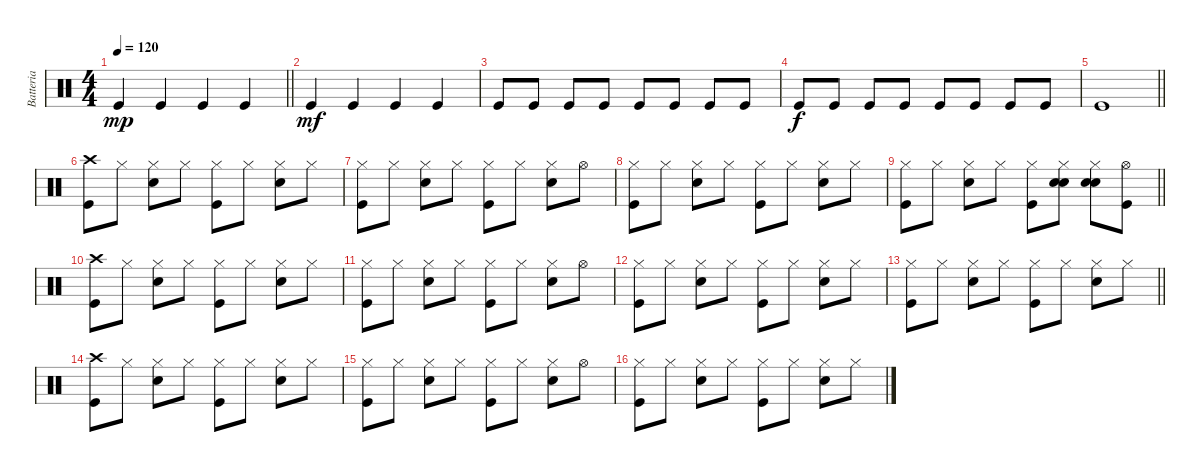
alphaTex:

\track ("Batteria" "Batteria") {instrument percussion}
\staff {score}
\articulation defaults
\ts (4 4)
\tempo 120
\clef neutral
\barLineRight lightlight
\ks c "Kick (hit)".4{dy mp} "Kick (hit)".4 "Kick (hit)".4 "Kick (hit)".4
|
"Kick (hit)".4{dy mf} "Kick (hit)".4 "Kick (hit)".4 "Kick (hit)".4 |
"Kick (hit)".8 "Kick (hit)".8 "Kick (hit)".8 "Kick (hit)".8 "Kick (hit)".8 "Kick (hit)".8 "Kick (hit)".8 "Kick (hit)".8 |
"Kick (hit)".8{dy f} "Kick (hit)".8 "Kick (hit)".8 "Kick (hit)".8 "Kick (hit)".8 "Kick (hit)".8 "Kick (hit)".8 "Kick (hit)".8 |
\barLineRight lightlight "Kick (hit)".1
|
("Kick (hit)" "Crash high (hit)").8 "Hi-Hat (closed)".8 ("Snare (hit) 2" "Hi-Hat (closed)").8 "Hi-Hat (closed)".8 ("Kick (hit)" "Hi-Hat (closed)").8 "Hi-Hat (closed)".8 ("Snare (hit) 2" "Hi-Hat (closed)").8 "Hi-Hat (closed)".8 |
("Kick (hit)" "Hi-Hat (closed)").8 "Hi-Hat (closed)".8 ("Snare (hit) 2" "Hi-Hat (closed)").8 "Hi-Hat (closed)".8 ("Kick (hit)" "Hi-Hat (closed)").8 "Hi-Hat (closed)".8 ("Snare (hit) 2" "Hi-Hat (closed)").8 "Hi-Hat (open)".8 |
("Kick (hit)" "Hi-Hat (closed)").8 "Hi-Hat (closed)".8 ("Snare (hit) 2" "Hi-Hat (closed)").8 "Hi-Hat (closed)".8 ("Kick (hit)" "Hi-Hat (closed)").8 "Hi-Hat (closed)".8 ("Snare (hit) 2" "Hi-Hat (closed)").8 "Hi-Hat (closed)".8 |
\barLineRight lightlight
("Kick (hit)" "Hi-Hat (closed)").8 "Hi-Hat (closed)".8 ("Snare (hit) 2" "Hi-Hat (closed)").8 "Hi-Hat (closed)".8 ("Kick (hit)" "Hi-Hat (closed)").8 ("Hi-Hat (closed)" "Snare (hit) 2" "Hand Clap (hit)").8 ("Snare (hit) 2" "Hi-Hat (closed)" "Hand Clap (hit)").8 ("Hi-Hat (open)" "Kick (hit)").8 |
("Kick (hit)" "Crash high (hit)").8 "Hi-Hat (closed)".8 ("Snare (hit) 2" "Hi-Hat (closed)").8 "Hi-Hat (closed)".8 ("Kick (hit)" "Hi-Hat (closed)").8 "Hi-Hat (closed)".8 ("Snare (hit) 2" "Hi-Hat (closed)").8 "Hi-Hat (closed)".8 |
("Kick (hit)" "Hi-Hat (closed)").8 "Hi-Hat (closed)".8 ("Snare (hit) 2" "Hi-Hat (closed)").8 "Hi-Hat (closed)".8 ("Kick (hit)" "Hi-Hat (closed)").8 "Hi-Hat (closed)".8 ("Snare (hit) 2" "Hi-Hat (closed)").8 "Hi-Hat (open)".8 |
("Kick (hit)" "Hi-Hat (closed)").8 "Hi-Hat (closed)".8 ("Snare (hit) 2" "Hi-Hat (closed)").8 "Hi-Hat (closed)".8 ("Kick (hit)" "Hi-Hat (closed)").8 "Hi-Hat (closed)".8 ("Snare (hit) 2" "Hi-Hat (closed)").8 "Hi-Hat (closed)".8 |
\barLineRight lightlight
("Kick (hit)" "Hi-Hat (closed)").8 "Hi-Hat (closed)".8 ("Snare (hit) 2" "Hi-Hat (closed)").8 "Hi-Hat (closed)".8 ("Kick (hit)" "Hi-Hat (closed)").8 "Hi-Hat (closed)".8 ("Snare (hit) 2" "Hi-Hat (closed)").8 "Hi-Hat (closed)".8 |
("Kick (hit)" "Crash high (hit)").8 "Hi-Hat (closed)".8 ("Snare (hit) 2" "Hi-Hat (closed)").8 "Hi-Hat (closed)".8 ("Kick (hit)" "Hi-Hat (closed)").8 "Hi-Hat (closed)".8 ("Snare (hit) 2" "Hi-Hat (closed)").8 "Hi-Hat (closed)".8 |
("Kick (hit)" "Hi-Hat (closed)").8 "Hi-Hat (closed)".8 ("Snare (hit) 2" "Hi-Hat (closed)").8 "Hi-Hat (closed)".8 ("Kick (hit)" "Hi-Hat (closed)").8 "Hi-Hat (closed)".8 ("Snare (hit) 2" "Hi-Hat (closed)").8 "Hi-Hat (open)".8 |
("Kick (hit)" "Hi-Hat (closed)").8 "Hi-Hat (closed)".8 ("Snare (hit) 2" "Hi-Hat (closed)").8 "Hi-Hat (closed)".8 ("Kick (hit)" "Hi-Hat (closed)").8 "Hi-Hat (closed)".8 ("Snare (hit) 2" "Hi-Hat (closed)").8 "Hi-Hat (closed)".8
